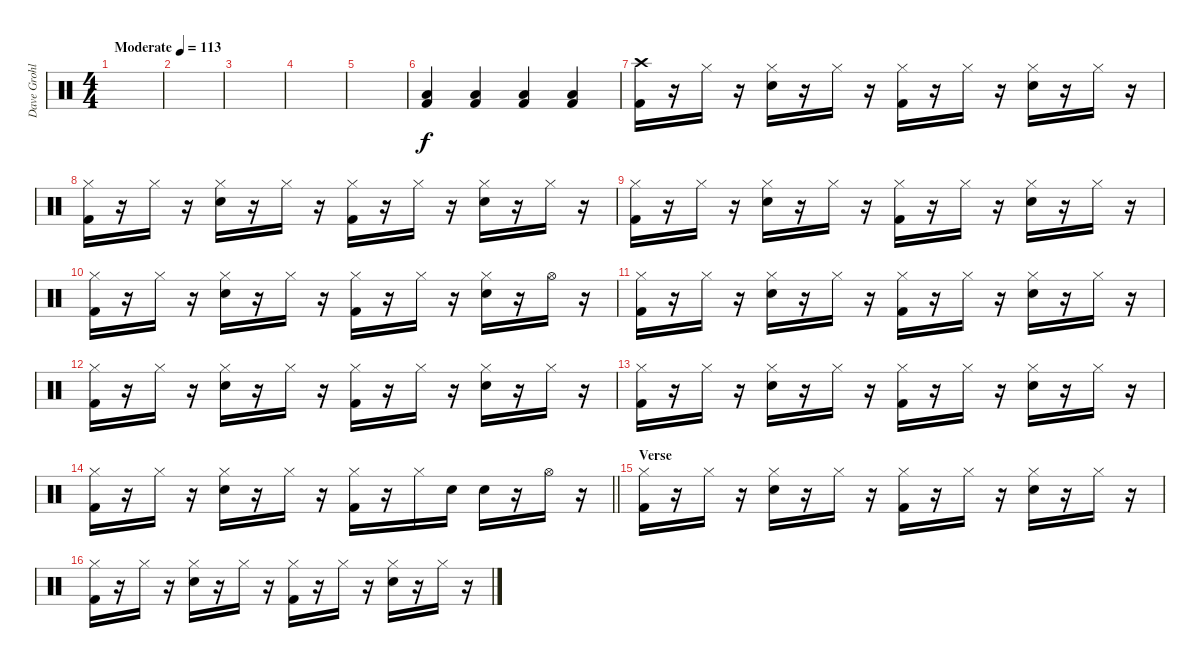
\track ("Dave Grohl" "Dave Grohl") {instrument percussion}
\staff {score}
\articulation defaults
\ts (4 4)
\tempo (113 "Moderate")
\clef neutral
\ks c
|
|
|
|
|
("Low Tom (hit)" "Kick (hit) 2").4 ("Low Tom (hit)" "Kick (hit) 2").4 ("Low Tom (hit)" "Kick (hit) 2").4 ("Low Tom (hit)" "Kick (hit) 2").4 |
("Crash high (hit)" "Kick (hit) 2").16 r.16 "Hi-Hat (closed)".16 r.16 ("Hi-Hat (closed)" "Electric Snare (hit)").16 r.16 "Hi-Hat (closed)".16 r.16 ("Hi-Hat (closed)" "Kick (hit) 2").16 r.16 "Hi-Hat (closed)".16 r.16 ("Hi-Hat (closed)" "Electric Snare (hit)").16 r.16 "Hi-Hat (closed)".16 r.16 |
("Hi-Hat (closed)" "Kick (hit) 2").16 r.16 "Hi-Hat (closed)".16 r.16 ("Hi-Hat (closed)" "Electric Snare (hit)").16 r.16 "Hi-Hat (closed)".16 r.16 ("Hi-Hat (closed)" "Kick (hit) 2").16 r.16 "Hi-Hat (closed)".16 r.16 ("Hi-Hat (closed)" "Electric Snare (hit)").16 r.16 "Hi-Hat (closed)".16 r.16 |
("Hi-Hat (closed)" "Kick (hit) 2").16 r.16 "Hi-Hat (closed)".16 r.16 ("Hi-Hat (closed)" "Electric Snare (hit)").16 r.16 "Hi-Hat (closed)".16 r.16 ("Hi-Hat (closed)" "Kick (hit) 2").16 r.16 "Hi-Hat (closed)".16 r.16 ("Hi-Hat (closed)" "Electric Snare (hit)").16 r.16 "Hi-Hat (closed)".16 r.16 |
("Hi-Hat (closed)" "Kick (hit) 2").16 r.16 "Hi-Hat (closed)".16 r.16 ("Hi-Hat (closed)" "Electric Snare (hit)").16 r.16 "Hi-Hat (closed)".16 r.16 ("Hi-Hat (closed)" "Kick (hit) 2").16 r.16 "Hi-Hat (closed)".16 r.16 ("Hi-Hat (closed)" "Electric Snare (hit)").16 r.16 "Hi-Hat (open)".16 r.16 |
("Hi-Hat (closed)" "Kick (hit) 2").16 r.16 "Hi-Hat (closed)".16 r.16 ("Hi-Hat (closed)" "Electric Snare (hit)").16 r.16 "Hi-Hat (closed)".16 r.16 ("Hi-Hat (closed)" "Kick (hit) 2").16 r.16 "Hi-Hat (closed)".16 r.16 ("Hi-Hat (closed)" "Electric Snare (hit)").16 r.16 "Hi-Hat (closed)".16 r.16 |
("Hi-Hat (closed)" "Kick (hit) 2").16 r.16 "Hi-Hat (closed)".16 r.16 ("Hi-Hat (closed)" "Electric Snare (hit)").16 r.16 "Hi-Hat (closed)".16 r.16 ("Hi-Hat (closed)" "Kick (hit) 2").16 r.16 "Hi-Hat (closed)".16 r.16 ("Hi-Hat (closed)" "Electric Snare (hit)").16 r.16 "Hi-Hat (closed)".16 r.16 |
("Hi-Hat (closed)" "Kick (hit) 2").16 r.16 "Hi-Hat (closed)".16 r.16 ("Hi-Hat (closed)" "Electric Snare (hit)").16 r.16 "Hi-Hat (closed)".16 r.16 ("Hi-Hat (closed)" "Kick (hit) 2").16 r.16 "Hi-Hat (closed)".16 r.16 ("Hi-Hat (closed)" "Electric Snare (hit)").16 r.16 "Hi-Hat (closed)".16 r.16 |
\barLineRight lightlight
("Hi-Hat (closed)" "Kick (hit) 2").16 r.16 "Hi-Hat (closed)".16 r.16 ("Hi-Hat (closed)" "Electric Snare (hit)").16 r.16 "Hi-Hat (closed)".16 r.16 ("Hi-Hat (closed)" "Kick (hit) 2").16 r.16 "Hi-Hat (closed)".16 "Electric Snare (hit)".16 "Electric Snare (hit)".16 r.16 "Hi-Hat (open)".16 r.16 |
\section ("" "Verse")
("Hi-Hat (closed)" "Kick (hit) 2").16 r.16 "Hi-Hat (closed)".16 r.16 ("Hi-Hat (closed)" "Electric Snare (hit)").16 r.16 "Hi-Hat (closed)".16 r.16 ("Hi-Hat (closed)" "Kick (hit) 2").16 r.16 "Hi-Hat (closed)".16 r.16 ("Hi-Hat (closed)" "Electric Snare (hit)").16 r.16 "Hi-Hat (closed)".16 r.16 |
("Hi-Hat (closed)" "Kick (hit) 2").16 r.16 "Hi-Hat (closed)".16 r.16 ("Hi-Hat (closed)" "Electric Snare (hit)").16 r.16 "Hi-Hat (closed)".16 r.16 ("Hi-Hat (closed)" "Kick (hit) 2").16 r.16 "Hi-Hat (closed)".16 r.16 ("Hi-Hat (closed)" "Electric Snare (hit)").16 r.16 "Hi-Hat (closed)".16 r.16
